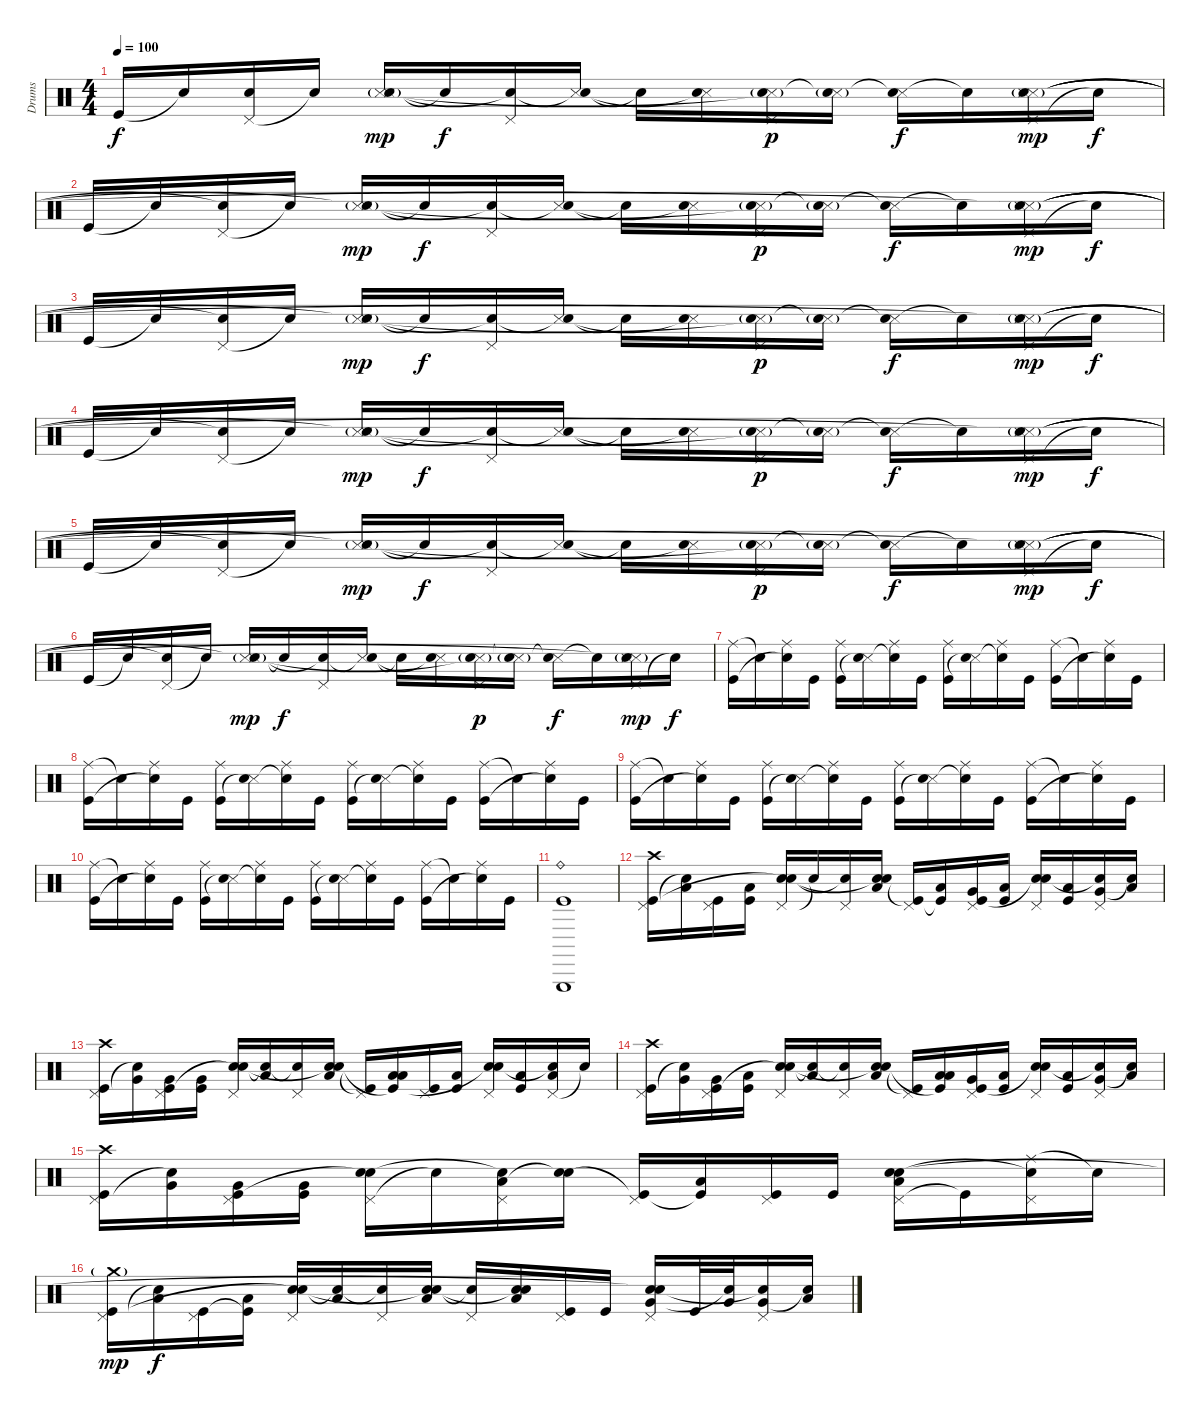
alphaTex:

\track ("Drums" "Drums") {instrument percussion}
\staff {score}
\articulation defaults
\ts (4 4)
\tempo 100
\clef neutral
\ks c "Kick (hit)".16{dy f} "Snare (hit)"{t}.16
("Pedal Hi-Hat (hit)" "Snare (hit)"{t}).16 "Snare (hit)"{t}.16 ("Snare (side stick) 3"{g} "Snare (side stick) 3" "Snare (hit)"{t}).16{bd 480 dy mp} "Snare (hit)"{t}.16{dy f} ("Pedal Hi-Hat (hit)" "Snare (hit)"{t}).16 ("Snare (side stick) 3" "Snare (hit)"{t}).16 "Snare (hit)"{t}.16 ("Snare (side stick) 3" "Snare (hit)"{t}).16 ("Pedal Hi-Hat (hit)" "Snare (side stick) 3"{g} "Snare (hit)"{t}).16{dy p} ("Snare (side stick) 3"{g} "Snare (hit)"{t}).16 ("Snare (side stick) 3" "Snare (hit)"{t}).16{dy f} "Snare (hit)"{t}.16 ("Pedal Hi-Hat (hit)" "Snare (side stick) 3"{g} "Snare (side stick) 3" "Snare (hit)"{t}).16{bd 480 dy mp} "Snare (hit)"{t}.16{dy f} |
"Kick (hit)".16 "Snare (hit)"{t}.16 ("Pedal Hi-Hat (hit)" "Snare (hit)"{t}).16 "Snare (hit)"{t}.16 ("Snare (side stick) 3"{g} "Snare (side stick) 3" "Snare (hit)"{t}).16{bd 480 dy mp} "Snare (hit)"{t}.16{dy f} ("Pedal Hi-Hat (hit)" "Snare (hit)"{t}).16 ("Snare (side stick) 3" "Snare (hit)"{t}).16 "Snare (hit)"{t}.16 ("Snare (side stick) 3" "Snare (hit)"{t}).16 ("Pedal Hi-Hat (hit)" "Snare (side stick) 3"{g} "Snare (hit)"{t}).16{dy p} ("Snare (side stick) 3"{g} "Snare (hit)"{t}).16 ("Snare (side stick) 3" "Snare (hit)"{t}).16{dy f} "Snare (hit)"{t}.16 ("Pedal Hi-Hat (hit)" "Snare (side stick) 3"{g} "Snare (side stick) 3" "Snare (hit)"{t}).16{bd 480 dy mp} "Snare (hit)"{t}.16{dy f} |
"Kick (hit)".16 "Snare (hit)"{t}.16 ("Pedal Hi-Hat (hit)" "Snare (hit)"{t}).16 "Snare (hit)"{t}.16 ("Snare (side stick) 3"{g} "Snare (side stick) 3" "Snare (hit)"{t}).16{bd 480 dy mp} "Snare (hit)"{t}.16{dy f} ("Pedal Hi-Hat (hit)" "Snare (hit)"{t}).16 ("Snare (side stick) 3" "Snare (hit)"{t}).16 "Snare (hit)"{t}.16 ("Snare (side stick) 3" "Snare (hit)"{t}).16 ("Pedal Hi-Hat (hit)" "Snare (side stick) 3"{g} "Snare (hit)"{t}).16{dy p} ("Snare (side stick) 3"{g} "Snare (hit)"{t}).16 ("Snare (side stick) 3" "Snare (hit)"{t}).16{dy f} "Snare (hit)"{t}.16 ("Pedal Hi-Hat (hit)" "Snare (side stick) 3"{g} "Snare (side stick) 3" "Snare (hit)"{t}).16{bd 480 dy mp} "Snare (hit)"{t}.16{dy f} |
"Kick (hit)".16 "Snare (hit)"{t}.16 ("Pedal Hi-Hat (hit)" "Snare (hit)"{t}).16 "Snare (hit)"{t}.16 ("Snare (side stick) 3"{g} "Snare (side stick) 3" "Snare (hit)"{t}).16{bd 480 dy mp} "Snare (hit)"{t}.16{dy f} ("Pedal Hi-Hat (hit)" "Snare (hit)"{t}).16 ("Snare (side stick) 3" "Snare (hit)"{t}).16 "Snare (hit)"{t}.16 ("Snare (side stick) 3" "Snare (hit)"{t}).16 ("Pedal Hi-Hat (hit)" "Snare (side stick) 3"{g} "Snare (hit)"{t}).16{dy p} ("Snare (side stick) 3"{g} "Snare (hit)"{t}).16 ("Snare (side stick) 3" "Snare (hit)"{t}).16{dy f} "Snare (hit)"{t}.16 ("Pedal Hi-Hat (hit)" "Snare (side stick) 3"{g} "Snare (side stick) 3" "Snare (hit)"{t}).16{bd 480 dy mp} "Snare (hit)"{t}.16{dy f} |
"Kick (hit)".16 "Snare (hit)"{t}.16 ("Pedal Hi-Hat (hit)" "Snare (hit)"{t}).16 "Snare (hit)"{t}.16 ("Snare (side stick) 3"{g} "Snare (side stick) 3" "Snare (hit)"{t}).16{bd 480 dy mp} "Snare (hit)"{t}.16{dy f} ("Pedal Hi-Hat (hit)" "Snare (hit)"{t}).16 ("Snare (side stick) 3" "Snare (hit)"{t}).16 "Snare (hit)"{t}.16 ("Snare (side stick) 3" "Snare (hit)"{t}).16 ("Pedal Hi-Hat (hit)" "Snare (side stick) 3"{g} "Snare (hit)"{t}).16{dy p} ("Snare (side stick) 3"{g} "Snare (hit)"{t}).16 ("Snare (side stick) 3" "Snare (hit)"{t}).16{dy f} "Snare (hit)"{t}.16 ("Pedal Hi-Hat (hit)" "Snare (side stick) 3"{g} "Snare (side stick) 3" "Snare (hit)"{t}).16{bd 480 dy mp} "Snare (hit)"{t}.16{dy f} |
"Kick (hit)".16 "Snare (hit)"{t}.16 ("Pedal Hi-Hat (hit)" "Snare (hit)"{t}).16 "Snare (hit)"{t}.16 ("Snare (side stick) 3"{g} "Snare (side stick) 3" "Snare (hit)"{t}).16{bd 480 dy mp} "Snare (hit)"{t}.16{dy f} ("Pedal Hi-Hat (hit)" "Snare (hit)"{t}).16 ("Snare (side stick) 3" "Snare (hit)"{t}).16 "Snare (hit)"{t}.16 ("Snare (side stick) 3" "Snare (hit)"{t}).16 ("Pedal Hi-Hat (hit)" "Snare (side stick) 3"{g} "Snare (hit)"{t}).16{dy p} ("Snare (side stick) 3"{g} "Snare (hit)"{t}).16 ("Snare (side stick) 3" "Snare (hit)"{t}).16{dy f} "Snare (hit)"{t}.16 ("Pedal Hi-Hat (hit)" "Snare (side stick) 3"{g} "Snare (side stick) 3" "Snare (hit)"{t}).16{bd 480 dy mp} "Snare (hit)"{t}.16{dy f} |
("Ride (middle)" "Kick (hit)").16 "Snare (hit)"{t}.16 ("Ride (middle)" "Snare (hit)"{t}).16 "Kick (hit)".16 ("Ride (middle)" "Kick (hit)").16 ("Snare (side stick) 3" "Snare (hit)"{t}).16 ("Ride (middle)" "Snare (hit)"{t}).16 "Kick (hit)".16 ("Ride (middle)" "Kick (hit)").16 ("Snare (side stick) 3" "Snare (hit)"{t}).16 ("Ride (middle)" "Snare (hit)"{t}).16 "Kick (hit)".16 ("Ride (middle)" "Kick (hit)").16 "Snare (hit)"{t}.16 ("Ride (middle)" "Snare (hit)"{t}).16 "Kick (hit)".16 |
("Ride (middle)" "Kick (hit)").16 "Snare (hit)"{t}.16 ("Ride (middle)" "Snare (hit)"{t}).16 "Kick (hit)".16 ("Ride (middle)" "Kick (hit)").16 ("Snare (side stick) 3" "Snare (hit)"{t}).16 ("Ride (middle)" "Snare (hit)"{t}).16 "Kick (hit)".16 ("Ride (middle)" "Kick (hit)").16 ("Snare (side stick) 3" "Snare (hit)"{t}).16 ("Ride (middle)" "Snare (hit)"{t}).16 "Kick (hit)".16 ("Ride (middle)" "Kick (hit)").16 "Snare (hit)"{t}.16 ("Ride (middle)" "Snare (hit)"{t}).16 "Kick (hit)".16 |
("Ride (middle)" "Kick (hit)").16 "Snare (hit)"{t}.16 ("Ride (middle)" "Snare (hit)"{t}).16 "Kick (hit)".16 ("Ride (middle)" "Kick (hit)").16 ("Snare (side stick) 3" "Snare (hit)"{t}).16 ("Ride (middle)" "Snare (hit)"{t}).16 "Kick (hit)".16 ("Ride (middle)" "Kick (hit)").16 ("Snare (side stick) 3" "Snare (hit)"{t}).16 ("Ride (middle)" "Snare (hit)"{t}).16 "Kick (hit)".16 ("Ride (middle)" "Kick (hit)").16 "Snare (hit)"{t}.16 ("Ride (middle)" "Snare (hit)"{t}).16 "Kick (hit)".16 |
("Ride (middle)" "Kick (hit)").16 "Snare (hit)"{t}.16 ("Ride (middle)" "Snare (hit)"{t}).16 "Kick (hit)".16 ("Ride (middle)" "Kick (hit)").16 ("Snare (side stick) 3" "Snare (hit)"{t}).16 ("Ride (middle)" "Snare (hit)"{t}).16 "Kick (hit)".16 ("Ride (middle)" "Kick (hit)").16 ("Snare (side stick) 3" "Snare (hit)"{t}).16 ("Ride (middle)" "Snare (hit)"{t}).16 "Kick (hit)".16 ("Ride (middle)" "Kick (hit)").16 "Snare (hit)"{t}.16 ("Ride (middle)" "Snare (hit)"{t}).16 "Kick (hit)".16 |
("Triangle (hit)" "Ride (bell)" "Kick (hit)").1 |
("Crash high (hit)" "Pedal Hi-Hat (hit)" "Kick (hit)").16{volume 16} ("Low Floor Tom (hit)" "Snare (hit)"{t}).16 ("Pedal Hi-Hat (hit)" "Kick (hit)").16 ("Low Floor Tom (hit)" "Kick (hit)").16 ("Pedal Hi-Hat (hit)" "Electric Snare (hit)" "Snare (hit)"{t}).16 "Snare (hit)"{t}.16 ("Pedal Hi-Hat (hit)" "Snare (hit)"{t}).16 ("Low Floor Tom (hit)" "Electric Snare (hit)" "Snare (hit)"{t}).16 ("Pedal Hi-Hat (hit)" "Kick (hit)"{t}).16 ("Low Tom (hit)" "Kick (hit)"{t}).16 ("Pedal Hi-Hat (hit)" "Very Low Tom (hit)" "Kick (hit)").16 ("Low Floor Tom (hit)" "Kick (hit)").16 ("Pedal Hi-Hat (hit)" "Electric Snare (hit)" "Snare (hit)"{t}).16 ("Low Tom (hit)" "Kick (hit)").16 ("Pedal Hi-Hat (hit)" "Very Low Tom (hit)" "Snare (hit)"{t}).16 ("Low Floor Tom (hit)" "Snare (hit)"{t}).16 |
("Crash high (hit)" "Pedal Hi-Hat (hit)" "Kick (hit)").16 ("Very Low Tom (hit)" "Snare (hit)"{t}).16 ("Pedal Hi-Hat (hit)" "Very Low Tom (hit)" "Kick (hit)").16 ("Very Low Tom (hit)" "Kick (hit)").16 ("Pedal Hi-Hat (hit)" "Electric Snare (hit)" "Snare (hit)"{t}).16 ("Low Floor Tom (hit)" "Snare (hit)"{t}).16 ("Pedal Hi-Hat (hit)" "Snare (hit)"{t}).16 ("Low Floor Tom (hit)" "Electric Snare (hit)" "Snare (hit)"{t}).16 ("Pedal Hi-Hat (hit)" "Kick (hit)"{t}).16 ("Low Tom (hit)" "Low Floor Tom (hit)" "Kick (hit)"{t}).16 ("Pedal Hi-Hat (hit)" "Kick (hit)").16 ("Low Floor Tom (hit)" "Kick (hit)").16 ("Pedal Hi-Hat (hit)" "Electric Snare (hit)" "Snare (hit)"{t}).16 ("Low Tom (hit)" "Kick (hit)").16 ("Pedal Hi-Hat (hit)" "Low Floor Tom (hit)" "Snare (hit)"{t}).16 "Snare (hit)"{t}.16 |
("Crash high (hit)" "Pedal Hi-Hat (hit)" "Kick (hit)").16 ("Very Low Tom (hit)" "Snare (hit)"{t}).16 ("Pedal Hi-Hat (hit)" "Very Low Tom (hit)" "Kick (hit)").16 ("Low Floor Tom (hit)" "Kick (hit)").16 ("Pedal Hi-Hat (hit)" "Electric Snare (hit)" "Snare (hit)"{t}).16 ("Low Floor Tom (hit)" "Snare (hit)"{t}).16 ("Pedal Hi-Hat (hit)" "Snare (hit)"{t}).16 ("Low Floor Tom (hit)" "Electric Snare (hit)" "Snare (hit)"{t}).16 ("Pedal Hi-Hat (hit)" "Kick (hit)"{t}).16 ("Low Tom (hit)" "Low Floor Tom (hit)" "Kick (hit)"{t}).16 ("Pedal Hi-Hat (hit)" "Very Low Tom (hit)" "Kick (hit)").16 ("Low Floor Tom (hit)" "Kick (hit)").16 ("Pedal Hi-Hat (hit)" "Electric Snare (hit)" "Snare (hit)"{t}).16 ("Low Tom (hit)" "Kick (hit)").16 ("Pedal Hi-Hat (hit)" "Very Low Tom (hit)" "Snare (hit)"{t}).16 ("Low Floor Tom (hit)" "Snare (hit)"{t}).16 |
("Crash high (hit)" "Pedal Hi-Hat (hit)" "Kick (hit)").16 ("Very Low Tom (hit)" "Snare (hit)"{t}).16 ("Pedal Hi-Hat (hit)" "Very Low Tom (hit)" "Kick (hit)").16 ("Very Low Tom (hit)" "Kick (hit)").16 ("Pedal Hi-Hat (hit)" "Electric Snare (hit)" "Snare (hit)"{t}).16 "Snare (hit)"{t}.16 ("Pedal Hi-Hat (hit)" "Low Floor Tom (hit)" "Snare (hit)"{t}).16 ("Electric Snare (hit)" "Snare (hit)"{t}).16 ("Pedal Hi-Hat (hit)" "Kick (hit)"{t}).16 ("Low Tom (hit)" "Kick (hit)"{t}).16 ("Pedal Hi-Hat (hit)" "Kick (hit)").16 "Kick (hit)".16 ("Pedal Hi-Hat (hit)" "Low Tom (hit)" "Electric Snare (hit)" "Snare (hit)").16 "Kick (hit)"{t}.16 ("Ride (middle)" "Pedal Hi-Hat (hit)" "Snare (hit)"{t}).16 "Snare (hit)"{t}.16 |
("Crash medium (hit)"{g} "Pedal Hi-Hat (hit)" "Kick (hit)").16{dy mp} ("Low Floor Tom (hit)" "Snare (hit)"{t}).16{dy f} ("Pedal Hi-Hat (hit)" "Kick (hit)").16 ("Low Floor Tom (hit)" "Kick (hit)"{t}).16 ("Pedal Hi-Hat (hit)" "Electric Snare (hit)" "Snare (hit)"{t}).16 ("Low Floor Tom (hit)" "Snare (hit)"{t}).16 ("Pedal Hi-Hat (hit)" "Snare (hit)"{t}).16 ("Low Floor Tom (hit)" "Electric Snare (hit)" "Snare (hit)"{t}).16 ("Pedal Hi-Hat (hit)" "Snare (hit)"{t}).16 ("Low Floor Tom (hit)" "Electric Snare (hit)" "Snare (hit)"{t}).16 ("Pedal Hi-Hat (hit)" "Kick (hit)").16 "Kick (hit)".16 ("Pedal Hi-Hat (hit)" "Very Low Tom (hit)" "Electric Snare (hit)" "Snare (hit)"{t}).16 "Kick (hit)".32 ("Very Low Tom (hit)" "Snare (hit)"{t}).32 ("Pedal Hi-Hat (hit)" "Very Low Tom (hit)" "Snare (hit)"{t}).16 ("Low Floor Tom (hit)" "Snare (hit)"{t}).16
